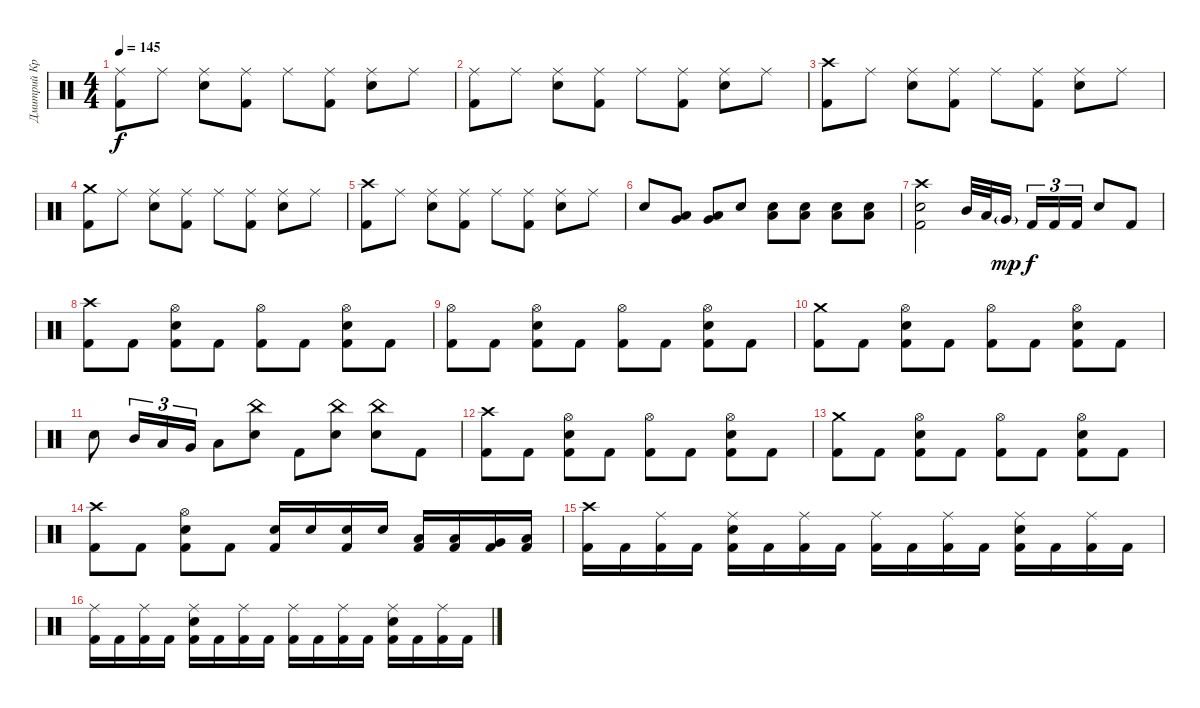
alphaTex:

\track ("Дмитрий Кривенков" "Дмитрий Кр") {instrument percussion}
\staff {score}
\articulation defaults
\ts (4 4)
\tempo 145
\clef neutral
\ks c
("Ride (middle)" "Kick (hit) 2").8{dy f} "Ride (middle)".8 ("Ride (middle)" "Electric Snare (hit)").8 ("Ride (middle)" "Kick (hit) 2").8 "Ride (middle)".8 ("Ride (middle)" "Kick (hit) 2").8 ("Ride (middle)" "Electric Snare (hit)").8 "Ride (middle)".8 |
("Ride (middle)" "Kick (hit) 2").8 "Ride (middle)".8 ("Ride (middle)" "Electric Snare (hit)").8 ("Ride (middle)" "Kick (hit) 2").8 "Ride (middle)".8 ("Ride (middle)" "Kick (hit) 2").8 ("Ride (middle)" "Electric Snare (hit)").8 "Ride (middle)".8 |
("Crash high (hit)" "Kick (hit) 2").8 "Ride (middle)".8 ("Ride (middle)" "Electric Snare (hit)").8 ("Ride (middle)" "Kick (hit) 2").8 "Ride (middle)".8 ("Ride (middle)" "Kick (hit) 2").8 ("Ride (middle)" "Electric Snare (hit)").8 "Ride (middle)".8 |
("Crash medium (hit)" "Kick (hit) 2").8 "Ride (middle)".8 ("Ride (middle)" "Electric Snare (hit)").8 ("Ride (middle)" "Kick (hit) 2").8 "Ride (middle)".8 ("Ride (middle)" "Kick (hit) 2").8 ("Ride (middle)" "Electric Snare (hit)").8 "Ride (middle)".8 |
("Crash high (hit)" "Kick (hit) 2").8 "Ride (middle)".8 ("Ride (middle)" "Electric Snare (hit)").8 ("Ride (middle)" "Kick (hit) 2").8 "Ride (middle)".8 ("Ride (middle)" "Kick (hit) 2").8 ("Ride (middle)" "Electric Snare (hit)").8 "Ride (middle)".8 |
"Electric Snare (hit)".8 ("Very Low Tom (hit)" "Low Floor Tom (hit)").8 ("Very Low Tom (hit)" "Low Floor Tom (hit)").8 "Electric Snare (hit)".8 ("Electric Snare (hit)" "Low Floor Tom (hit)").8 ("Electric Snare (hit)" "Low Floor Tom (hit)").8 ("Electric Snare (hit)" "Low Floor Tom (hit)").8 ("Electric Snare (hit)" "Low Floor Tom (hit)").8 |
("Crash high (hit)" "Electric Snare (hit)" "Kick (hit) 2").2 "Mid Tom (hit)".32 "Low Tom (hit)".32 "Very Low Tom (hit)"{g}.16{dy mp beam splitsecondary} "Kick (hit) 2".16{tu (3 2) dy f} "Kick (hit) 2".16{tu (3 2)} "Kick (hit) 2".16{tu (3 2)} "Electric Snare (hit)".8 "Kick (hit) 2".8 |
("Crash high (hit)" "Kick (hit) 2").8 "Kick (hit) 2".8 ("Hi-Hat (open)" "Electric Snare (hit)" "Kick (hit) 2").8 "Kick (hit) 2".8 ("Hi-Hat (open)" "Kick (hit) 2").8 "Kick (hit) 2".8 ("Hi-Hat (open)" "Electric Snare (hit)" "Kick (hit) 2").8 "Kick (hit) 2".8 |
("Hi-Hat (open)" "Kick (hit) 2").8 "Kick (hit) 2".8 ("Hi-Hat (open)" "Electric Snare (hit)" "Kick (hit) 2").8 "Kick (hit) 2".8 ("Hi-Hat (open)" "Kick (hit) 2").8 "Kick (hit) 2".8 ("Hi-Hat (open)" "Electric Snare (hit)" "Kick (hit) 2").8 "Kick (hit) 2".8 |
("Crash medium (hit)" "Kick (hit) 2").8 "Kick (hit) 2".8 ("Hi-Hat (open)" "Electric Snare (hit)" "Kick (hit) 2").8 "Kick (hit) 2".8 ("Hi-Hat (open)" "Kick (hit) 2").8 "Kick (hit) 2".8 ("Hi-Hat (open)" "Electric Snare (hit)" "Kick (hit) 2").8 "Kick (hit) 2".8 |
"Electric Snare (hit)".8 "Mid Tom (hit)".16{tu (3 2)} "Low Tom (hit)".16{tu (3 2)} "Very Low Tom (hit)".16{tu (3 2)} "Low Floor Tom (hit)".8 ("China (hit)" "Electric Snare (hit)").8 "Kick (hit) 2".8 ("China (hit)" "Electric Snare (hit)").8 ("China (hit)" "Electric Snare (hit)").8 "Kick (hit) 2".8 |
("Crash high (hit)" "Kick (hit) 2").8 "Kick (hit) 2".8 ("Hi-Hat (open)" "Electric Snare (hit)" "Kick (hit) 2").8 "Kick (hit) 2".8 ("Hi-Hat (open)" "Kick (hit) 2").8 "Kick (hit) 2".8 ("Hi-Hat (open)" "Electric Snare (hit)" "Kick (hit) 2").8 "Kick (hit) 2".8 |
("Crash medium (hit)" "Kick (hit) 2").8 "Kick (hit) 2".8 ("Hi-Hat (open)" "Electric Snare (hit)" "Kick (hit) 2").8 "Kick (hit) 2".8 ("Hi-Hat (open)" "Kick (hit) 2").8 "Kick (hit) 2".8 ("Hi-Hat (open)" "Electric Snare (hit)" "Kick (hit) 2").8 "Kick (hit) 2".8 |
("Crash high (hit)" "Kick (hit) 2").8 "Kick (hit) 2".8 ("Hi-Hat (open)" "Electric Snare (hit)" "Kick (hit) 2").8 "Kick (hit) 2".8 ("Electric Snare (hit)" "Kick (hit) 2").16 "Electric Snare (hit)".16 ("Electric Snare (hit)" "Kick (hit) 2").16 "Electric Snare (hit)".16 ("Low Tom (hit)" "Kick (hit) 2").16 ("Low Tom (hit)" "Kick (hit) 2").16 ("Very Low Tom (hit)" "Kick (hit) 2").16 ("Low Floor Tom (hit)" "Kick (hit) 2").16 |
("Crash high (hit)" "Kick (hit) 2").16 "Kick (hit) 2".16 ("Ride (middle)" "Kick (hit) 2").16 "Kick (hit) 2".16 ("Ride (middle)" "Electric Snare (hit)" "Kick (hit) 2").16 "Kick (hit) 2".16 ("Ride (middle)" "Kick (hit) 2").16 "Kick (hit) 2".16 ("Ride (middle)" "Kick (hit) 2").16 "Kick (hit) 2".16 ("Ride (middle)" "Kick (hit) 2").16 "Kick (hit) 2".16 ("Ride (middle)" "Electric Snare (hit)" "Kick (hit) 2").16 "Kick (hit) 2".16 ("Ride (middle)" "Kick (hit) 2").16 "Kick (hit) 2".16 |
("Ride (middle)" "Kick (hit) 2").16 "Kick (hit) 2".16 ("Ride (middle)" "Kick (hit) 2").16 "Kick (hit) 2".16 ("Ride (middle)" "Electric Snare (hit)" "Kick (hit) 2").16 "Kick (hit) 2".16 ("Ride (middle)" "Kick (hit) 2").16 "Kick (hit) 2".16 ("Ride (middle)" "Kick (hit) 2").16 "Kick (hit) 2".16 ("Ride (middle)" "Kick (hit) 2").16 "Kick (hit) 2".16 ("Ride (middle)" "Electric Snare (hit)" "Kick (hit) 2").16 "Kick (hit) 2".16 ("Ride (middle)" "Kick (hit) 2").16 "Kick (hit) 2".16
